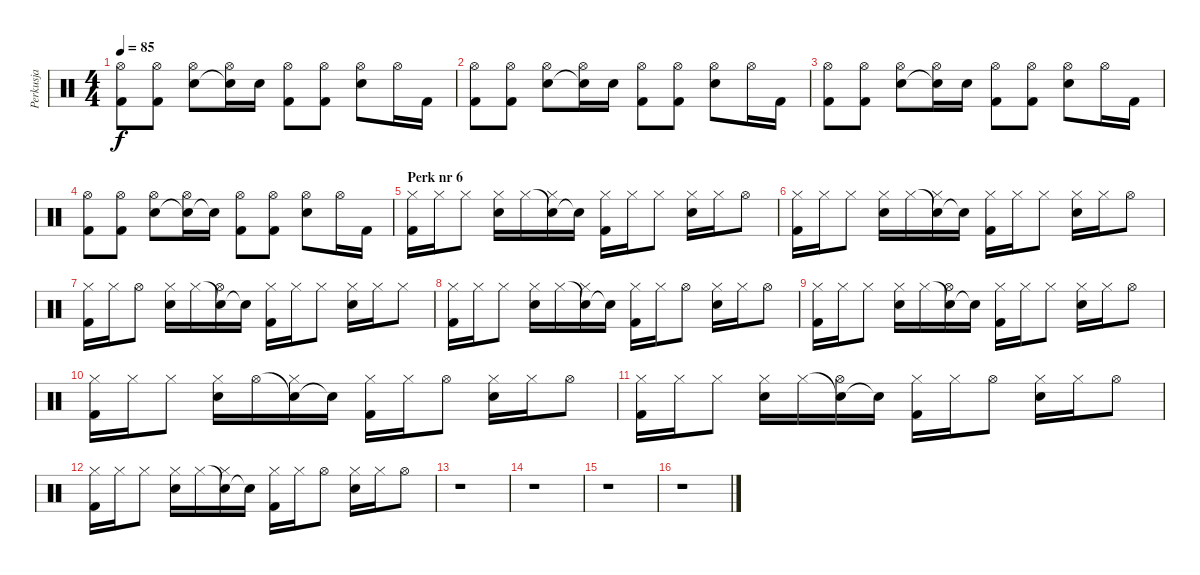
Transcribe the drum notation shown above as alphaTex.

\track ("Perkusja" "Perkusja") {instrument percussion}
\staff {score}
\articulation defaults
\ts (4 4)
\tempo 85
\clef neutral
\ks c
("Kick (hit) 2" "Hi-Hat (open)").8{dy f} ("Kick (hit) 2" "Hi-Hat (open)").8 ("Snare (hit) 2" "Hi-Hat (open)").8 ("Snare (hit)"{t} "Hi-Hat (open)").16 "Snare (hit) 2".16 ("Kick (hit) 2" "Hi-Hat (open)").8 ("Kick (hit) 2" "Hi-Hat (open)").8 ("Snare (hit) 2" "Hi-Hat (open)").8 "Hi-Hat (open)".16 "Kick (hit) 2".16 |
("Kick (hit) 2" "Hi-Hat (open)").8 ("Kick (hit) 2" "Hi-Hat (open)").8 ("Snare (hit) 2" "Hi-Hat (open)").8 ("Snare (hit)"{t} "Hi-Hat (open)").16 "Snare (hit) 2".16 ("Kick (hit) 2" "Hi-Hat (open)").8 ("Kick (hit) 2" "Hi-Hat (open)").8 ("Snare (hit) 2" "Hi-Hat (open)").8 "Hi-Hat (open)".16 "Kick (hit) 2".16 |
("Kick (hit) 2" "Hi-Hat (open)").8 ("Kick (hit) 2" "Hi-Hat (open)").8 ("Snare (hit) 2" "Hi-Hat (open)").8 ("Snare (hit)"{t} "Hi-Hat (open)").16 "Snare (hit) 2".16 ("Kick (hit) 2" "Hi-Hat (open)").8 ("Kick (hit) 2" "Hi-Hat (open)").8 ("Snare (hit) 2" "Hi-Hat (open)").8 "Hi-Hat (open)".16 "Kick (hit) 2".16 |
("Kick (hit) 2" "Hi-Hat (open)").8 ("Kick (hit) 2" "Hi-Hat (open)").8 ("Snare (hit) 2" "Hi-Hat (open)").8 ("Snare (hit)"{t} "Hi-Hat (open)").16 "Snare (hit)"{t}.16 ("Kick (hit) 2" "Hi-Hat (open)").8 ("Kick (hit) 2" "Hi-Hat (open)").8 ("Snare (hit) 2" "Hi-Hat (open)").8 "Hi-Hat (open)".16 "Kick (hit) 2".16 |
\section ("" "Perk nr 6")
("Kick (hit) 2" "Hi-Hat (closed)").16 "Hi-Hat (closed)".16 "Hi-Hat (closed)".8 ("Snare (hit) 2" "Hi-Hat (closed)").16 "Hi-Hat (closed)".16 ("Snare (hit)"{t} "Hi-Hat (closed)").16 "Snare (hit)"{t}.16 ("Kick (hit) 2" "Hi-Hat (closed)").16 "Hi-Hat (closed)".16 "Hi-Hat (closed)".8 ("Snare (hit) 2" "Hi-Hat (closed)").16 "Hi-Hat (closed)".16 "Hi-Hat (open)".8 |
("Kick (hit) 2" "Hi-Hat (closed)").16 "Hi-Hat (closed)".16 "Hi-Hat (closed)".8 ("Snare (hit) 2" "Hi-Hat (closed)").16 "Hi-Hat (closed)".16 ("Snare (hit)"{t} "Hi-Hat (closed)").16 "Snare (hit)"{t}.16 ("Kick (hit) 2" "Hi-Hat (closed)").16 "Hi-Hat (closed)".16 "Hi-Hat (closed)".8 ("Snare (hit) 2" "Hi-Hat (closed)").16 "Hi-Hat (closed)".16 "Hi-Hat (open)".8 |
("Kick (hit) 2" "Hi-Hat (closed)").16 "Hi-Hat (closed)".16 "Hi-Hat (open)".8 ("Snare (hit) 2" "Hi-Hat (closed)").16 "Hi-Hat (closed)".16 ("Snare (hit)"{t} "Hi-Hat (open)").16 "Snare (hit)"{t}.16 ("Kick (hit) 2" "Hi-Hat (closed)").16 "Hi-Hat (closed)".16 "Hi-Hat (closed)".8 ("Snare (hit) 2" "Hi-Hat (closed)").16 "Hi-Hat (closed)".16 "Hi-Hat (closed)".8 |
("Kick (hit) 2" "Hi-Hat (closed)").16 "Hi-Hat (closed)".16 "Hi-Hat (closed)".8 ("Snare (hit) 2" "Hi-Hat (closed)").16 "Hi-Hat (closed)".16 ("Snare (hit)"{t} "Hi-Hat (closed)").16 "Snare (hit)"{t}.16 ("Kick (hit) 2" "Hi-Hat (closed)").16 "Hi-Hat (closed)".16 "Hi-Hat (open)".8 ("Snare (hit) 2" "Hi-Hat (closed)").16 "Hi-Hat (closed)".16 "Hi-Hat (open)".8 |
("Kick (hit) 2" "Hi-Hat (closed)").16 "Hi-Hat (closed)".16 "Hi-Hat (closed)".8 ("Snare (hit) 2" "Hi-Hat (closed)").16 "Hi-Hat (closed)".16 ("Snare (hit)"{t} "Hi-Hat (open)").16 "Snare (hit)"{t}.16 ("Kick (hit) 2" "Hi-Hat (closed)").16 "Hi-Hat (closed)".16 "Hi-Hat (closed)".8 ("Snare (hit) 2" "Hi-Hat (closed)").16 "Hi-Hat (closed)".16 "Hi-Hat (open)".8 |
("Kick (hit) 2" "Hi-Hat (closed)").16 "Hi-Hat (closed)".16 "Hi-Hat (closed)".8 ("Snare (hit) 2" "Hi-Hat (closed)").16 "Hi-Hat (open)".16 ("Snare (hit)"{t} "Hi-Hat (closed)").16 "Snare (hit)"{t}.16 ("Kick (hit) 2" "Hi-Hat (closed)").16 "Hi-Hat (closed)".16 "Hi-Hat (open)".8 ("Snare (hit) 2" "Hi-Hat (closed)").16 "Hi-Hat (closed)".16 "Hi-Hat (open)".8 |
("Kick (hit) 2" "Hi-Hat (closed)").16 "Hi-Hat (closed)".16 "Hi-Hat (closed)".8 ("Snare (hit) 2" "Hi-Hat (closed)").16 "Hi-Hat (closed)".16 ("Snare (hit)"{t} "Hi-Hat (open)").16 "Snare (hit)"{t}.16 ("Kick (hit) 2" "Hi-Hat (closed)").16 "Hi-Hat (closed)".16 "Hi-Hat (open)".8 ("Snare (hit) 2" "Hi-Hat (closed)").16 "Hi-Hat (closed)".16 "Hi-Hat (open)".8 |
("Kick (hit) 2" "Hi-Hat (closed)").16 "Hi-Hat (closed)".16 "Hi-Hat (closed)".8 ("Snare (hit) 2" "Hi-Hat (closed)").16 "Hi-Hat (closed)".16 ("Snare (hit)"{t} "Hi-Hat (closed)").16 "Snare (hit)"{t}.16 ("Kick (hit) 2" "Hi-Hat (closed)").16 "Hi-Hat (closed)".16 "Hi-Hat (open)".8 ("Snare (hit) 2" "Hi-Hat (closed)").16 "Hi-Hat (closed)".16 "Hi-Hat (open)".8 |
r.1 |
r.1 |
r.1 |
r.1
